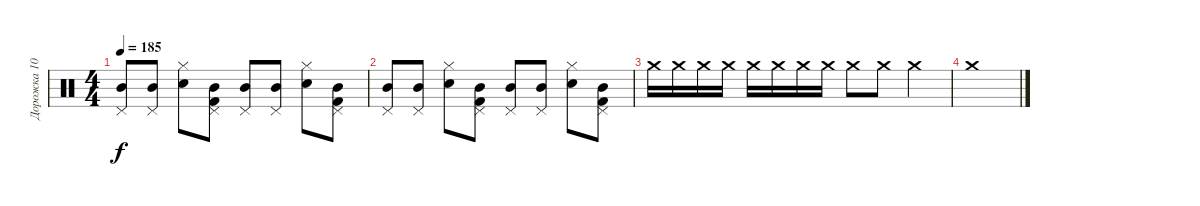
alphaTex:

\track ("Дорожка 10" "Дорожка 10") {instrument percussion}
\staff {score}
\articulation defaults
\ts (4 4)
\tempo 185
\clef neutral
\ks c
("Mid Tom (hit)" "Pedal Hi-Hat (hit)").8{dy f} ("Mid Tom (hit)" "Pedal Hi-Hat (hit)").8 ("Snare (hit) 2" "Hi-Hat (closed)").8 ("Kick (hit) 2" "Mid Tom (hit)" "Pedal Hi-Hat (hit)").8 ("Mid Tom (hit)" "Pedal Hi-Hat (hit)").8 ("Mid Tom (hit)" "Pedal Hi-Hat (hit)").8 ("Snare (hit) 2" "Hi-Hat (closed)").8 ("Kick (hit) 2" "Mid Tom (hit)" "Pedal Hi-Hat (hit)").8 |
("Mid Tom (hit)" "Pedal Hi-Hat (hit)").8 ("Mid Tom (hit)" "Pedal Hi-Hat (hit)").8 ("Snare (hit) 2" "Hi-Hat (closed)").8 ("Kick (hit) 2" "Mid Tom (hit)" "Pedal Hi-Hat (hit)").8 ("Mid Tom (hit)" "Pedal Hi-Hat (hit)").8 ("Mid Tom (hit)" "Pedal Hi-Hat (hit)").8 ("Snare (hit) 2" "Hi-Hat (closed)").8 ("Kick (hit) 2" "Mid Tom (hit)" "Pedal Hi-Hat (hit)").8 |
"Crash medium (hit)".16 "Crash medium (hit)".16 "Crash medium (hit)".16 "Crash medium (hit)".16 "Crash medium (hit)".16 "Crash medium (hit)".16 "Crash medium (hit)".16 "Crash medium (hit)".16 "Crash medium (hit)".8 "Crash medium (hit)".8 "Crash medium (hit)".4 |
"Crash medium (hit)".1
